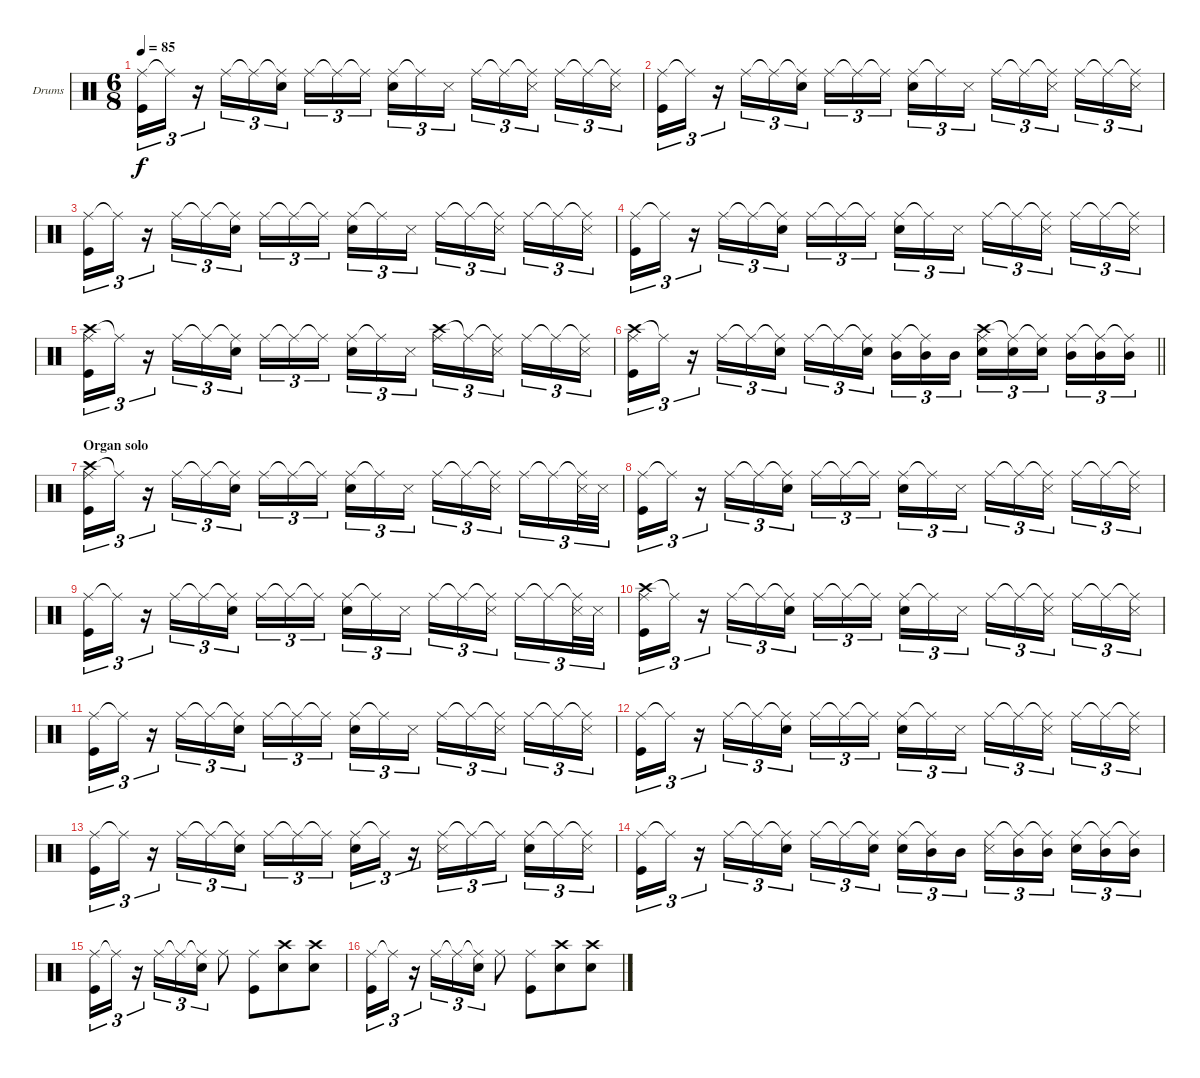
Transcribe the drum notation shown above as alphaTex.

\bracketExtendMode groupsimilarinstruments
\firstSystemTrackNameOrientation horizontal
\otherSystemsTrackNameOrientation horizontal
\track ("Drumkit" "Drums") {instrument percussion}
\staff {score}
\articulation defaults
\ts (6 8)
\tempo 85
\clef neutral
\ks c
("Ride (middle)" "Kick (hit)").16{tu (3 2) dy f} "Ride (middle)"{t}.16{tu (3 2)} r.16{tu (3 2)} "Ride (middle)".16{tu (3 2)} "Ride (middle)"{t}.16{tu (3 2)} ("Ride (middle)"{t} "Snare (hit) 2").16{tu (3 2)} "Ride (middle)".16{tu (3 2)} "Ride (middle)"{t}.16{tu (3 2)} "Ride (middle)"{t}.16{tu (3 2)} ("Ride (middle)" "Snare (hit) 2").16{tu (3 2)} "Ride (middle)"{t}.16{tu (3 2)} "Snare (side stick) 3".16{tu (3 2)} "Ride (middle)".16{tu (3 2)} "Ride (middle)"{t}.16{tu (3 2)} ("Ride (middle)"{t} "Snare (side stick) 3").16{tu (3 2)} "Ride (middle)".16{tu (3 2)} "Ride (middle)"{t}.16{tu (3 2)} ("Ride (middle)"{t} "Snare (side stick) 3").16{tu (3 2)} |
("Ride (middle)" "Kick (hit)").16{tu (3 2)} "Ride (middle)"{t}.16{tu (3 2)} r.16{tu (3 2)} "Ride (middle)".16{tu (3 2)} "Ride (middle)"{t}.16{tu (3 2)} ("Ride (middle)"{t} "Snare (hit) 2").16{tu (3 2)} "Ride (middle)".16{tu (3 2)} "Ride (middle)"{t}.16{tu (3 2)} "Ride (middle)"{t}.16{tu (3 2)} ("Ride (middle)" "Snare (hit) 2").16{tu (3 2)} "Ride (middle)"{t}.16{tu (3 2)} "Snare (side stick) 3".16{tu (3 2)} "Ride (middle)".16{tu (3 2)} "Ride (middle)"{t}.16{tu (3 2)} ("Ride (middle)"{t} "Snare (side stick) 3").16{tu (3 2)} "Ride (middle)".16{tu (3 2)} "Ride (middle)"{t}.16{tu (3 2)} ("Ride (middle)"{t} "Snare (side stick) 3").16{tu (3 2)} |
("Ride (middle)" "Kick (hit)").16{tu (3 2)} "Ride (middle)"{t}.16{tu (3 2)} r.16{tu (3 2)} "Ride (middle)".16{tu (3 2)} "Ride (middle)"{t}.16{tu (3 2)} ("Ride (middle)"{t} "Snare (hit) 2").16{tu (3 2)} "Ride (middle)".16{tu (3 2)} "Ride (middle)"{t}.16{tu (3 2)} "Ride (middle)"{t}.16{tu (3 2)} ("Ride (middle)" "Snare (hit) 2").16{tu (3 2)} "Ride (middle)"{t}.16{tu (3 2)} "Snare (side stick) 3".16{tu (3 2)} "Ride (middle)".16{tu (3 2)} "Ride (middle)"{t}.16{tu (3 2)} ("Ride (middle)"{t} "Snare (side stick) 3").16{tu (3 2)} "Ride (middle)".16{tu (3 2)} "Ride (middle)"{t}.16{tu (3 2)} ("Ride (middle)"{t} "Snare (side stick) 3").16{tu (3 2)} |
("Ride (middle)" "Kick (hit)").16{tu (3 2)} "Ride (middle)"{t}.16{tu (3 2)} r.16{tu (3 2)} "Ride (middle)".16{tu (3 2)} "Ride (middle)"{t}.16{tu (3 2)} ("Ride (middle)"{t} "Snare (hit) 2").16{tu (3 2)} "Ride (middle)".16{tu (3 2)} "Ride (middle)"{t}.16{tu (3 2)} "Ride (middle)"{t}.16{tu (3 2)} ("Ride (middle)" "Snare (hit) 2").16{tu (3 2)} "Ride (middle)"{t}.16{tu (3 2)} "Snare (side stick) 3".16{tu (3 2)} "Ride (middle)".16{tu (3 2)} "Ride (middle)"{t}.16{tu (3 2)} ("Ride (middle)"{t} "Snare (side stick) 3").16{tu (3 2)} "Ride (middle)".16{tu (3 2)} "Ride (middle)"{t}.16{tu (3 2)} ("Ride (middle)"{t} "Snare (side stick) 3").16{tu (3 2)} |
("Crash high (hit)" "Ride (middle)" "Kick (hit)").16{tu (3 2)} "Ride (middle)"{t}.16{tu (3 2)} r.16{tu (3 2)} "Ride (middle)".16{tu (3 2)} "Ride (middle)"{t}.16{tu (3 2)} ("Ride (middle)"{t} "Snare (hit) 2").16{tu (3 2)} "Ride (middle)".16{tu (3 2)} "Ride (middle)"{t}.16{tu (3 2)} "Ride (middle)"{t}.16{tu (3 2)} ("Ride (middle)" "Snare (hit) 2").16{tu (3 2)} "Ride (middle)"{t}.16{tu (3 2)} "Snare (side stick) 3".16{tu (3 2)} ("Crash high (hit)" "Ride (middle)").16{tu (3 2)} "Ride (middle)"{t}.16{tu (3 2)} ("Ride (middle)"{t} "Snare (side stick) 3").16{tu (3 2)} "Ride (middle)".16{tu (3 2)} "Ride (middle)"{t}.16{tu (3 2)} ("Ride (middle)"{t} "Snare (side stick) 3").16{tu (3 2)} |
\barLineRight lightlight
("Crash high (hit)" "Ride (middle)" "Kick (hit)").16{tu (3 2)} "Ride (middle)"{t}.16{tu (3 2)} r.16{tu (3 2)} "Ride (middle)".16{tu (3 2)} "Ride (middle)"{t}.16{tu (3 2)} ("Ride (middle)"{t} "Snare (hit) 2").16{tu (3 2)} "Ride (middle)".16{tu (3 2)} "Ride (middle)"{t}.16{tu (3 2)} ("Ride (middle)"{t} "Snare (hit) 2").16{tu (3 2)} ("Ride (middle)" "Mid Tom (hit)").16{tu (3 2)} ("Ride (middle)"{t} "Mid Tom (hit)").16{tu (3 2)} "Mid Tom (hit)".16{tu (3 2)} ("Crash high (hit)" "Ride (middle)" "Snare (hit) 2").16{tu (3 2)} ("Ride (middle)"{t} "Snare (hit) 2").16{tu (3 2)} ("Ride (middle)"{t} "Snare (hit) 2").16{tu (3 2)} ("Ride (middle)" "Mid Tom (hit)").16{tu (3 2)} ("Ride (middle)"{t} "Mid Tom (hit)").16{tu (3 2)} ("Ride (middle)"{t} "Mid Tom (hit)").16{tu (3 2)} |
\section ("" "Organ solo")
("Crash high (hit)" "Ride (middle)" "Kick (hit)").16{tu (3 2)} "Ride (middle)"{t}.16{tu (3 2)} r.16{tu (3 2)} "Ride (middle)".16{tu (3 2)} "Ride (middle)"{t}.16{tu (3 2)} ("Ride (middle)"{t} "Snare (hit) 2").16{tu (3 2)} "Ride (middle)".16{tu (3 2)} "Ride (middle)"{t}.16{tu (3 2)} "Ride (middle)"{t}.16{tu (3 2)} ("Ride (middle)" "Snare (hit) 2").16{tu (3 2)} "Ride (middle)"{t}.16{tu (3 2)} "Snare (side stick) 3".16{tu (3 2)} "Ride (middle)".16{tu (3 2)} "Ride (middle)"{t}.16{tu (3 2)} ("Ride (middle)"{t} "Snare (side stick) 3").16{tu (3 2)} "Ride (middle)".16{tu (3 2)} "Ride (middle)"{t}.16{tu (3 2)} ("Ride (middle)"{t} "Snare (side stick) 3").32{tu (3 2)} "Snare (side stick) 3".32{tu (3 2)} |
("Ride (middle)" "Kick (hit)").16{tu (3 2)} "Ride (middle)"{t}.16{tu (3 2)} r.16{tu (3 2)} "Ride (middle)".16{tu (3 2)} "Ride (middle)"{t}.16{tu (3 2)} ("Ride (middle)"{t} "Snare (hit) 2").16{tu (3 2)} "Ride (middle)".16{tu (3 2)} "Ride (middle)"{t}.16{tu (3 2)} "Ride (middle)"{t}.16{tu (3 2)} ("Ride (middle)" "Snare (hit) 2").16{tu (3 2)} "Ride (middle)"{t}.16{tu (3 2)} "Snare (side stick) 3".16{tu (3 2)} "Ride (middle)".16{tu (3 2)} "Ride (middle)"{t}.16{tu (3 2)} ("Ride (middle)"{t} "Snare (side stick) 3").16{tu (3 2)} "Ride (middle)".16{tu (3 2)} "Ride (middle)"{t}.16{tu (3 2)} ("Ride (middle)"{t} "Snare (side stick) 3").16{tu (3 2)} |
("Ride (middle)" "Kick (hit)").16{tu (3 2)} "Ride (middle)"{t}.16{tu (3 2)} r.16{tu (3 2)} "Ride (middle)".16{tu (3 2)} "Ride (middle)"{t}.16{tu (3 2)} ("Ride (middle)"{t} "Snare (hit) 2").16{tu (3 2)} "Ride (middle)".16{tu (3 2)} "Ride (middle)"{t}.16{tu (3 2)} "Ride (middle)"{t}.16{tu (3 2)} ("Ride (middle)" "Snare (hit) 2").16{tu (3 2)} "Ride (middle)"{t}.16{tu (3 2)} "Snare (side stick) 3".16{tu (3 2)} "Ride (middle)".16{tu (3 2)} "Ride (middle)"{t}.16{tu (3 2)} ("Ride (middle)"{t} "Snare (side stick) 3").16{tu (3 2)} "Ride (middle)".16{tu (3 2)} "Ride (middle)"{t}.16{tu (3 2)} ("Ride (middle)"{t} "Snare (side stick) 3").32{tu (3 2)} "Snare (side stick) 3".32{tu (3 2)} |
("Crash high (hit)" "Ride (middle)" "Kick (hit)").16{tu (3 2)} "Ride (middle)"{t}.16{tu (3 2)} r.16{tu (3 2)} "Ride (middle)".16{tu (3 2)} "Ride (middle)"{t}.16{tu (3 2)} ("Ride (middle)"{t} "Snare (hit) 2").16{tu (3 2)} "Ride (middle)".16{tu (3 2)} "Ride (middle)"{t}.16{tu (3 2)} "Ride (middle)"{t}.16{tu (3 2)} ("Ride (middle)" "Snare (hit) 2").16{tu (3 2)} "Ride (middle)"{t}.16{tu (3 2)} "Snare (side stick) 3".16{tu (3 2)} "Ride (middle)".16{tu (3 2)} "Ride (middle)"{t}.16{tu (3 2)} ("Ride (middle)"{t} "Snare (side stick) 3").16{tu (3 2)} "Ride (middle)".16{tu (3 2)} "Ride (middle)"{t}.16{tu (3 2)} ("Ride (middle)"{t} "Snare (side stick) 3").16{tu (3 2)} |
("Ride (middle)" "Kick (hit)").16{tu (3 2)} "Ride (middle)"{t}.16{tu (3 2)} r.16{tu (3 2)} "Ride (middle)".16{tu (3 2)} "Ride (middle)"{t}.16{tu (3 2)} ("Ride (middle)"{t} "Snare (hit) 2").16{tu (3 2)} "Ride (middle)".16{tu (3 2)} "Ride (middle)"{t}.16{tu (3 2)} "Ride (middle)"{t}.16{tu (3 2)} ("Ride (middle)" "Snare (hit) 2").16{tu (3 2)} "Ride (middle)"{t}.16{tu (3 2)} "Snare (side stick) 3".16{tu (3 2)} "Ride (middle)".16{tu (3 2)} "Ride (middle)"{t}.16{tu (3 2)} ("Ride (middle)"{t} "Snare (side stick) 3").16{tu (3 2)} "Ride (middle)".16{tu (3 2)} "Ride (middle)"{t}.16{tu (3 2)} ("Ride (middle)"{t} "Snare (side stick) 3").16{tu (3 2)} |
("Ride (middle)" "Kick (hit)").16{tu (3 2)} "Ride (middle)"{t}.16{tu (3 2)} r.16{tu (3 2)} "Ride (middle)".16{tu (3 2)} "Ride (middle)"{t}.16{tu (3 2)} ("Ride (middle)"{t} "Snare (hit) 2").16{tu (3 2)} "Ride (middle)".16{tu (3 2)} "Ride (middle)"{t}.16{tu (3 2)} "Ride (middle)"{t}.16{tu (3 2)} ("Ride (middle)" "Snare (hit) 2").16{tu (3 2)} "Ride (middle)"{t}.16{tu (3 2)} "Snare (side stick) 3".16{tu (3 2)} "Ride (middle)".16{tu (3 2)} "Ride (middle)"{t}.16{tu (3 2)} ("Ride (middle)"{t} "Snare (side stick) 3").16{tu (3 2)} "Ride (middle)".16{tu (3 2)} "Ride (middle)"{t}.16{tu (3 2)} ("Ride (middle)"{t} "Snare (side stick) 3").16{tu (3 2)} |
("Ride (middle)" "Kick (hit)").16{tu (3 2)} "Ride (middle)"{t}.16{tu (3 2)} r.16{tu (3 2)} "Ride (middle)".16{tu (3 2)} "Ride (middle)"{t}.16{tu (3 2)} ("Ride (middle)"{t} "Snare (hit) 2").16{tu (3 2)} "Ride (middle)".16{tu (3 2)} "Ride (middle)"{t}.16{tu (3 2)} "Ride (middle)"{t}.16{tu (3 2)} ("Ride (middle)" "Snare (hit) 2").16{tu (3 2)} "Ride (middle)"{t}.16{tu (3 2)} r.16{tu (3 2)} ("Ride (middle)" "Snare (side stick) 3").16{tu (3 2)} "Ride (middle)"{t}.16{tu (3 2)} "Ride (middle)"{t}.16{tu (3 2)} ("Ride (middle)" "Snare (hit) 2").16{tu (3 2)} "Ride (middle)"{t}.16{tu (3 2)} ("Ride (middle)"{t} "Snare (side stick) 3").16{tu (3 2)} |
("Ride (middle)" "Kick (hit)").16{tu (3 2)} "Ride (middle)"{t}.16{tu (3 2)} r.16{tu (3 2)} "Ride (middle)".16{tu (3 2)} "Ride (middle)"{t}.16{tu (3 2)} ("Ride (middle)"{t} "Snare (hit) 2").16{tu (3 2)} "Ride (middle)".16{tu (3 2)} "Ride (middle)"{t}.16{tu (3 2)} ("Ride (middle)"{t} "Snare (hit) 2").16{tu (3 2)} ("Ride (middle)" "Snare (hit) 2").16{tu (3 2)} ("Ride (middle)"{t} "Mid Tom (hit)").16{tu (3 2)} "Mid Tom (hit)".16{tu (3 2)} ("Ride (middle)" "Snare (side stick) 3").16{tu (3 2)} ("Ride (middle)"{t} "Mid Tom (hit)").16{tu (3 2)} ("Ride (middle)"{t} "Mid Tom (hit)").16{tu (3 2)} ("Ride (middle)" "Snare (hit) 2").16{tu (3 2)} ("Ride (middle)"{t} "Mid Tom (hit)").16{tu (3 2)} ("Ride (middle)"{t} "Mid Tom (hit)").16{tu (3 2)} |
("Ride (middle)" "Kick (hit)").16{tu (3 2)} "Ride (middle)"{t}.16{tu (3 2)} r.16{tu (3 2)} "Ride (middle)".16{tu (3 2)} "Ride (middle)"{t}.16{tu (3 2)} ("Ride (middle)"{t} "Snare (hit) 2").16{tu (3 2)} "Ride (middle)".8 ("Ride (middle)" "Kick (hit)").8 ("Crash high (hit)" "Snare (hit) 2").8 ("Crash high (hit)" "Snare (hit) 2").8 |
("Ride (middle)" "Kick (hit)").16{tu (3 2)} "Ride (middle)"{t}.16{tu (3 2)} r.16{tu (3 2)} "Ride (middle)".16{tu (3 2)} "Ride (middle)"{t}.16{tu (3 2)} ("Ride (middle)"{t} "Snare (hit) 2").16{tu (3 2)} "Ride (middle)".8 ("Ride (middle)" "Kick (hit)").8 ("Crash high (hit)" "Snare (hit) 2").8 ("Crash high (hit)" "Snare (hit) 2").8
